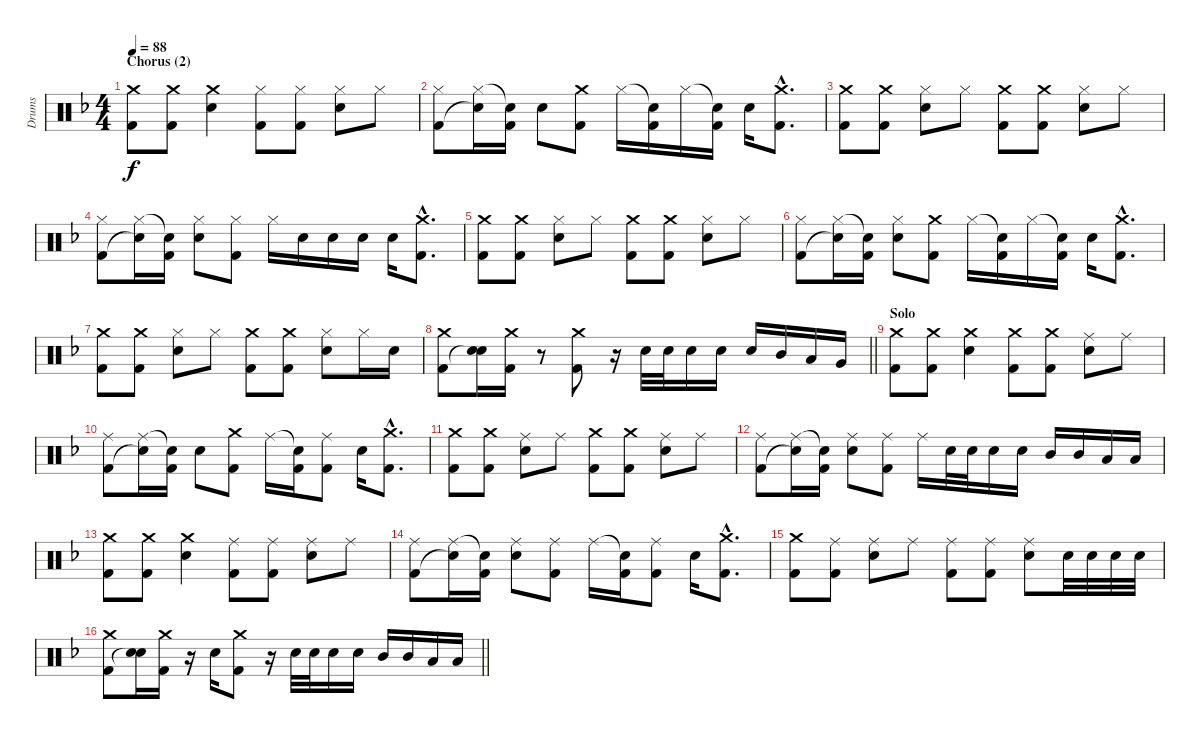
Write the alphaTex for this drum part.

\track ("Drums" "Drums") {instrument percussion}
\staff {score}
\articulation defaults
\ts (4 4)
\section ("" "Chorus (2)")
\tempo 88
\clef neutral
\ks dminor
("Crash medium (hit)" "Kick (hit) 2").8{dy f} ("Crash medium (hit)" "Kick (hit) 2").8 ("Crash medium (hit)" "Electric Snare (hit)").4 ("Hi-Hat (closed)" "Kick (hit) 2").8 ("Hi-Hat (closed)" "Kick (hit) 2").8 ("Hi-Hat (closed)" "Electric Snare (hit)").8 "Hi-Hat (closed)".8 |
("Hi-Hat (closed)" "Kick (hit) 2").8 ("Hi-Hat (closed)" "Snare (hit)"{t}).16 ("Snare (hit)"{t} "Kick (hit) 2").16 "Electric Snare (hit)".8 ("Crash medium (hit)" "Kick (hit) 2").8 "Hi-Hat (closed)".16 ("Snare (hit)"{t} "Kick (hit) 2").16 "Hi-Hat (closed)".16 ("Snare (hit)"{t} "Kick (hit) 2").16 "Electric Snare (hit)".16 ("Crash medium (hit)"{hac} "Kick (hit) 2"{hac}).8{d} |
("Crash medium (hit)" "Kick (hit) 2").8 ("Crash medium (hit)" "Kick (hit) 2").8 ("Hi-Hat (closed)" "Electric Snare (hit)").8 "Hi-Hat (closed)".8 ("Crash medium (hit)" "Kick (hit) 2").8 ("Crash medium (hit)" "Kick (hit) 2").8 ("Hi-Hat (closed)" "Electric Snare (hit)").8 "Hi-Hat (closed)".8 |
("Hi-Hat (closed)" "Kick (hit) 2").8 ("Hi-Hat (closed)" "Snare (hit)"{t}).16 ("Snare (hit)"{t} "Kick (hit) 2").16 ("Hi-Hat (closed)" "Electric Snare (hit)").8 ("Hi-Hat (closed)" "Kick (hit) 2").8 "Hi-Hat (closed)".16 "Electric Snare (hit)".16 "Electric Snare (hit)".16 "Electric Snare (hit)".16 "Electric Snare (hit)".16 ("Crash medium (hit)"{hac} "Kick (hit) 2"{hac}).8{d} |
("Crash medium (hit)" "Kick (hit) 2").8 ("Crash medium (hit)" "Kick (hit) 2").8 ("Hi-Hat (closed)" "Electric Snare (hit)").8 "Hi-Hat (closed)".8 ("Crash medium (hit)" "Kick (hit) 2").8 ("Crash medium (hit)" "Kick (hit) 2").8 ("Hi-Hat (closed)" "Electric Snare (hit)").8 "Hi-Hat (closed)".8 |
("Hi-Hat (closed)" "Kick (hit) 2").8 ("Hi-Hat (closed)" "Snare (hit)"{t}).16 ("Snare (hit)"{t} "Kick (hit) 2").16 ("Hi-Hat (closed)" "Electric Snare (hit)").8 ("Crash medium (hit)" "Kick (hit) 2").8 "Hi-Hat (closed)".16 ("Snare (hit)"{t} "Kick (hit) 2").16 "Hi-Hat (closed)".16 ("Snare (hit)"{t} "Kick (hit) 2").16 "Electric Snare (hit)".16 ("Crash medium (hit)"{hac} "Kick (hit) 2"{hac}).8{d} |
("Crash medium (hit)" "Kick (hit) 2").8 ("Crash medium (hit)" "Kick (hit) 2").8 ("Hi-Hat (closed)" "Electric Snare (hit)").8 "Hi-Hat (closed)".8 ("Crash medium (hit)" "Kick (hit) 2").8 ("Crash medium (hit)" "Kick (hit) 2").8 ("Hi-Hat (closed)" "Electric Snare (hit)").8 "Hi-Hat (closed)".16 "Electric Snare (hit)".16 |
\barLineRight lightlight
("Crash medium (hit)" "Kick (hit) 2").8 ("Electric Snare (hit)" "Snare (hit)"{t}).16 ("Crash medium (hit)" "Kick (hit) 2").16 r.8 ("Crash medium (hit)" "Kick (hit) 2").8 r.16 "Electric Snare (hit)".32 "Electric Snare (hit)".32 "Electric Snare (hit)".16 "Electric Snare (hit)".16 "Electric Snare (hit)".16 "Mid Tom (hit)".16 "Low Tom (hit)".16 "Very Low Tom (hit)".16 |
\section ("" "Solo")
("Crash medium (hit)" "Kick (hit) 2").8 ("Crash medium (hit)" "Kick (hit) 2").8 ("Crash medium (hit)" "Electric Snare (hit)").4 ("Crash medium (hit)" "Kick (hit) 2").8 ("Crash medium (hit)" "Kick (hit) 2").8 ("Ride (middle)" "Electric Snare (hit)").8 "Ride (middle)".8 |
("Ride (middle)" "Kick (hit) 2").8 ("Ride (middle)" "Snare (hit)"{t}).16 ("Snare (hit)"{t} "Kick (hit) 2").16 "Electric Snare (hit)".8 ("Crash medium (hit)" "Kick (hit) 2").8 "Ride (middle)".16 ("Snare (hit)"{t} "Kick (hit) 2").16 ("Ride (middle)" "Kick (hit) 2").8 "Electric Snare (hit)".16 ("Crash medium (hit)"{hac} "Kick (hit) 2"{hac}).8{d} |
("Crash medium (hit)" "Kick (hit) 2").8 ("Crash medium (hit)" "Kick (hit) 2").8 ("Ride (middle)" "Electric Snare (hit)").8 "Ride (middle)".8 ("Crash medium (hit)" "Kick (hit) 2").8 ("Crash medium (hit)" "Kick (hit) 2").8 ("Ride (middle)" "Electric Snare (hit)").8 "Ride (middle)".8 |
("Ride (middle)" "Kick (hit) 2").8 ("Ride (middle)" "Snare (hit)"{t}).16 ("Snare (hit)"{t} "Kick (hit) 2").16 ("Ride (middle)" "Electric Snare (hit)").8 ("Ride (middle)" "Kick (hit) 2").8 "Ride (middle)".16 "Electric Snare (hit)".32 "Electric Snare (hit)".32 "Electric Snare (hit)".16 "Electric Snare (hit)".16 "Mid Tom (hit)".16 "Mid Tom (hit)".16 "Low Tom (hit)".16 "Low Tom (hit)".16 |
("Crash medium (hit)" "Kick (hit) 2").8 ("Crash medium (hit)" "Kick (hit) 2").8 ("Crash medium (hit)" "Electric Snare (hit)").4 ("Ride (middle)" "Kick (hit) 2").8 ("Ride (middle)" "Kick (hit) 2").8 ("Ride (middle)" "Electric Snare (hit)").8 "Ride (middle)".8 |
("Ride (middle)" "Kick (hit) 2").8 ("Ride (middle)" "Snare (hit)"{t}).16 ("Snare (hit)"{t} "Kick (hit) 2").16 ("Ride (middle)" "Electric Snare (hit)").8 ("Ride (middle)" "Kick (hit) 2").8 "Ride (middle)".16 ("Snare (hit)"{t} "Kick (hit) 2").16 ("Ride (middle)" "Kick (hit) 2").8 "Electric Snare (hit)".16 ("Crash medium (hit)"{hac} "Kick (hit) 2"{hac}).8{d} |
("Crash medium (hit)" "Kick (hit) 2").8 ("Ride (middle)" "Kick (hit) 2").8 ("Ride (middle)" "Electric Snare (hit)").8 "Ride (middle)".8 ("Ride (middle)" "Kick (hit) 2").8 ("Ride (middle)" "Kick (hit) 2").8 ("Ride (middle)" "Electric Snare (hit)").8 "Electric Snare (hit)".32 "Electric Snare (hit)".32 "Electric Snare (hit)".32 "Electric Snare (hit)".32 |
\barLineRight lightlight
("Crash medium (hit)" "Kick (hit) 2").8 ("Electric Snare (hit)" "Snare (hit)"{t}).16 ("Crash medium (hit)" "Kick (hit) 2").16 r.16 "Electric Snare (hit)".16 ("Crash medium (hit)" "Kick (hit) 2").8 r.16 "Electric Snare (hit)".32 "Electric Snare (hit)".32 "Electric Snare (hit)".16 "Electric Snare (hit)".16 "Mid Tom (hit)".16 "Mid Tom (hit)".16 "Low Tom (hit)".16 "Low Tom (hit)".16
